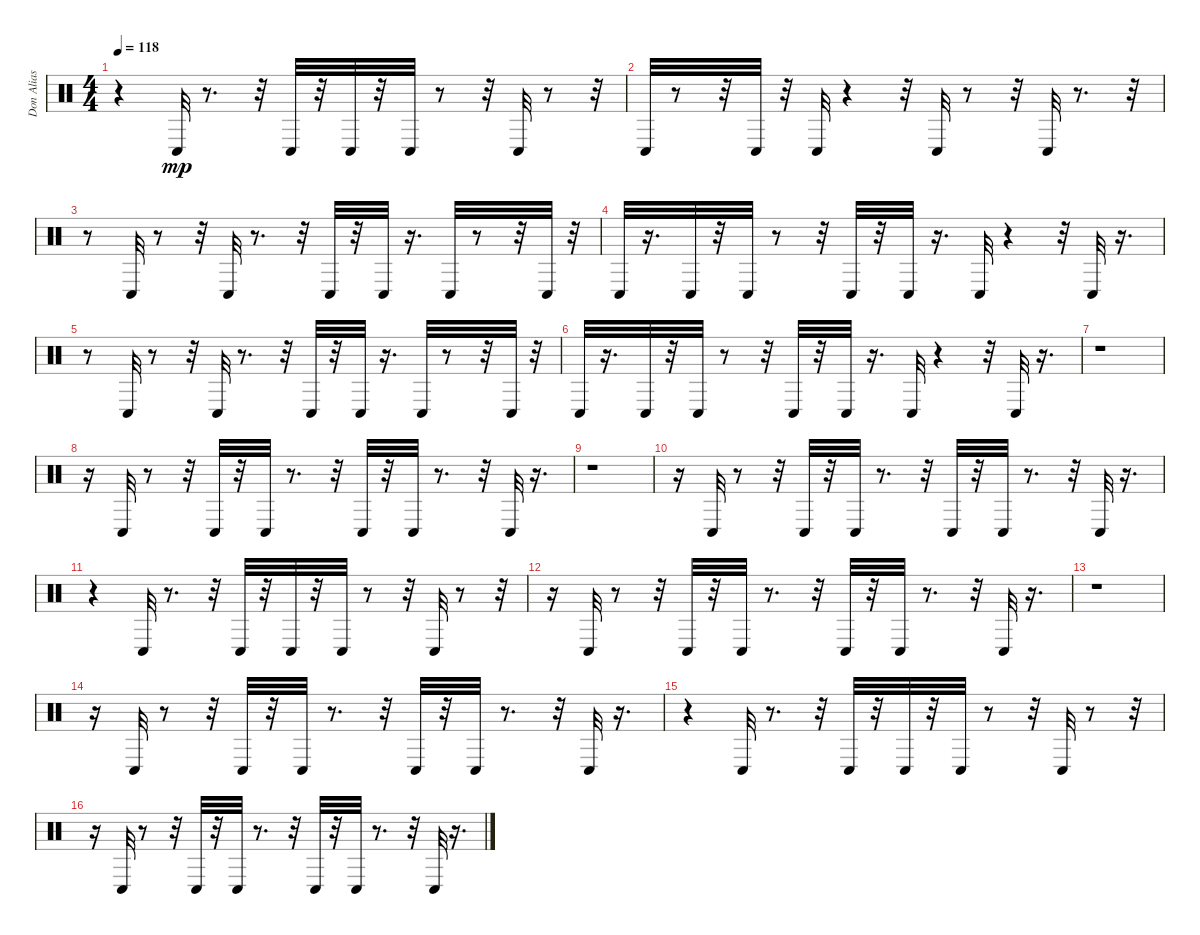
\track ("Don Alias" "Don Alias") {instrument percussion}
\staff {score}
\articulation defaults
\ts (4 4)
\tempo 118
\clef neutral
\ks c
r.4{dy mp} "Conga low (hit)".32 r.8{d} r.32 "Conga low (hit)".32 r.32 "Conga low (hit)".32 r.32 "Conga low (hit)".32 r.8 r.32 "Conga low (hit)".32 r.8 r.32 |
"Conga low (hit)".32 r.8 r.32 "Conga low (hit)".32 r.32 "Conga low (hit)".32 r.4 r.32 "Conga low (hit)".32 r.8 r.32 "Conga low (hit)".32 r.8{d} r.32 |
r.8 "Conga low (hit)".32 r.8 r.32 "Conga low (hit)".32 r.8{d} r.32 "Conga low (hit)".32 r.32 "Conga low (hit)".32 r.16{d} "Conga low (hit)".32 r.8 r.32 "Conga low (hit)".32 r.32 |
"Conga low (hit)".32 r.16{d} "Conga low (hit)".32 r.32 "Conga low (hit)".32 r.8 r.32 "Conga low (hit)".32 r.32 "Conga low (hit)".32 r.16{d} "Conga low (hit)".32 r.4 r.32 "Conga low (hit)".32 r.16{d} |
r.8 "Conga low (hit)".32 r.8 r.32 "Conga low (hit)".32 r.8{d} r.32 "Conga low (hit)".32 r.32 "Conga low (hit)".32 r.16{d} "Conga low (hit)".32 r.8 r.32 "Conga low (hit)".32 r.32 |
"Conga low (hit)".32 r.16{d} "Conga low (hit)".32 r.32 "Conga low (hit)".32 r.8 r.32 "Conga low (hit)".32 r.32 "Conga low (hit)".32 r.16{d} "Conga low (hit)".32 r.4 r.32 "Conga low (hit)".32 r.16{d} |
r.1 |
r.16 "Conga low (hit)".32 r.8 r.32 "Conga low (hit)".32 r.32 "Conga low (hit)".32 r.8{d} r.32 "Conga low (hit)".32 r.32 "Conga low (hit)".32 r.8{d} r.32 "Conga low (hit)".32 r.16{d} |
r.1 |
r.16 "Conga low (hit)".32 r.8 r.32 "Conga low (hit)".32 r.32 "Conga low (hit)".32 r.8{d} r.32 "Conga low (hit)".32 r.32 "Conga low (hit)".32 r.8{d} r.32 "Conga low (hit)".32 r.16{d} |
r.4 "Conga low (hit)".32 r.8{d} r.32 "Conga low (hit)".32 r.32 "Conga low (hit)".32 r.32 "Conga low (hit)".32 r.8 r.32 "Conga low (hit)".32 r.8 r.32 |
r.16 "Conga low (hit)".32 r.8 r.32 "Conga low (hit)".32 r.32 "Conga low (hit)".32 r.8{d} r.32 "Conga low (hit)".32 r.32 "Conga low (hit)".32 r.8{d} r.32 "Conga low (hit)".32 r.16{d} |
r.1 |
r.16 "Conga low (hit)".32 r.8 r.32 "Conga low (hit)".32 r.32 "Conga low (hit)".32 r.8{d} r.32 "Conga low (hit)".32 r.32 "Conga low (hit)".32 r.8{d} r.32 "Conga low (hit)".32 r.16{d} |
r.4 "Conga low (hit)".32 r.8{d} r.32 "Conga low (hit)".32 r.32 "Conga low (hit)".32 r.32 "Conga low (hit)".32 r.8 r.32 "Conga low (hit)".32 r.8 r.32 |
r.16 "Conga low (hit)".32 r.8 r.32 "Conga low (hit)".32 r.32 "Conga low (hit)".32 r.8{d} r.32 "Conga low (hit)".32 r.32 "Conga low (hit)".32 r.8{d} r.32 "Conga low (hit)".32 r.16{d}
